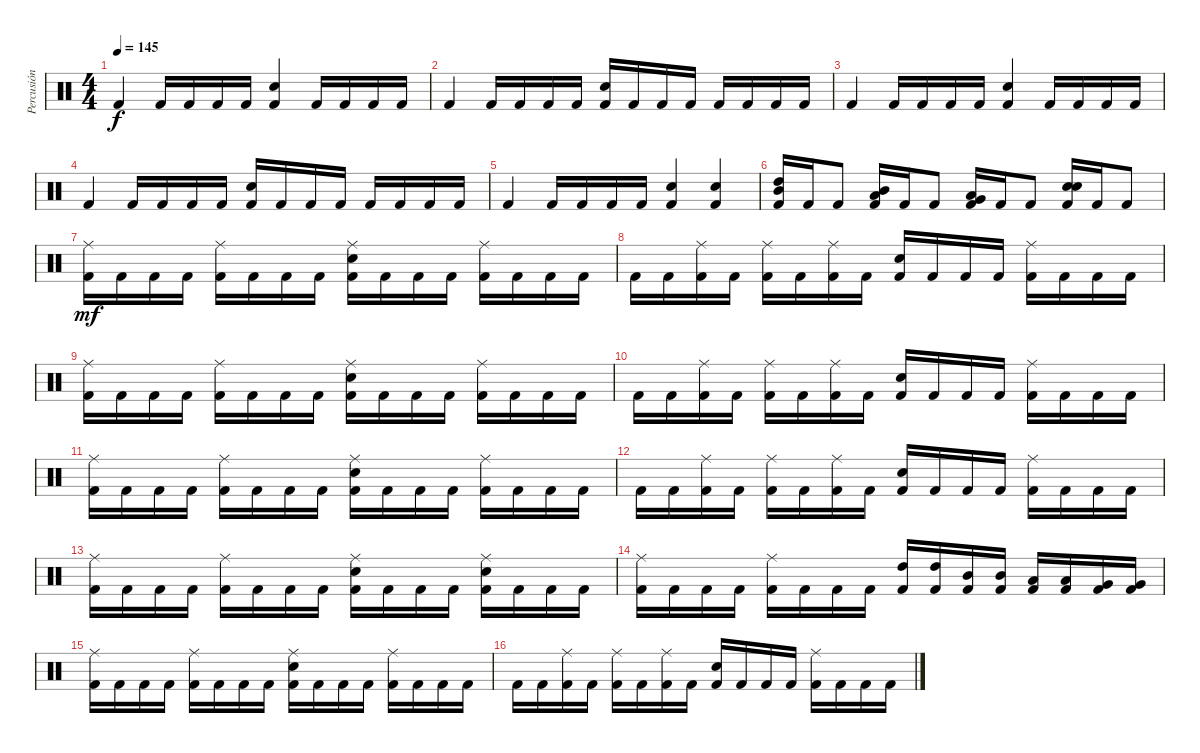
\track ("Percusión" "Percusión") {instrument percussion}
\staff {score}
\articulation defaults
\ts (4 4)
\tempo 145
\clef neutral
\ks c "Kick (hit) 2".4{dy f} "Kick (hit) 2".16 "Kick (hit) 2".16 "Kick (hit) 2".16 "Kick (hit) 2".16
("Snare (hit) 2" "Kick (hit) 2").4 "Kick (hit) 2".16 "Kick (hit) 2".16 "Kick (hit) 2".16 "Kick (hit) 2".16 |
"Kick (hit) 2".4 "Kick (hit) 2".16 "Kick (hit) 2".16 "Kick (hit) 2".16 "Kick (hit) 2".16 ("Snare (hit) 2" "Kick (hit) 2").16 "Kick (hit) 2".16 "Kick (hit) 2".16 "Kick (hit) 2".16 "Kick (hit) 2".16 "Kick (hit) 2".16 "Kick (hit) 2".16 "Kick (hit) 2".16 |
"Kick (hit) 2".4 "Kick (hit) 2".16 "Kick (hit) 2".16 "Kick (hit) 2".16 "Kick (hit) 2".16 ("Snare (hit) 2" "Kick (hit) 2").4 "Kick (hit) 2".16 "Kick (hit) 2".16 "Kick (hit) 2".16 "Kick (hit) 2".16 |
"Kick (hit) 2".4 "Kick (hit) 2".16 "Kick (hit) 2".16 "Kick (hit) 2".16 "Kick (hit) 2".16 ("Snare (hit) 2" "Kick (hit) 2").16 "Kick (hit) 2".16 "Kick (hit) 2".16 "Kick (hit) 2".16 "Kick (hit) 2".16 "Kick (hit) 2".16 "Kick (hit) 2".16 "Kick (hit) 2".16 |
"Kick (hit) 2".4 "Kick (hit) 2".16 "Kick (hit) 2".16 "Kick (hit) 2".16 "Kick (hit) 2".16 ("Snare (hit) 2" "Kick (hit) 2").4 ("Snare (hit) 2" "Kick (hit) 2").4 |
("High Tom (hit)" "Mid Tom (hit)" "Kick (hit) 2").16 "Kick (hit) 2".16 "Kick (hit) 2".8 ("Mid Tom (hit)" "Low Tom (hit)" "Kick (hit) 2").16 "Kick (hit) 2".16 "Kick (hit) 2".8 ("Low Tom (hit)" "Very Low Tom (hit)" "Kick (hit) 2").16 "Kick (hit) 2".16 "Kick (hit) 2".8 ("Snare (hit) 2" "Snare (hit) 2" "Kick (hit) 2").16 "Kick (hit) 2".16 "Kick (hit) 2".8 |
("Ride (middle)" "Kick (hit) 2").16{dy mf} "Kick (hit) 2".16 "Kick (hit) 2".16 "Kick (hit) 2".16 ("Ride (middle)" "Kick (hit) 2").16 "Kick (hit) 2".16 "Kick (hit) 2".16 "Kick (hit) 2".16 ("Ride (middle)" "Snare (hit) 2" "Kick (hit) 2").16 "Kick (hit) 2".16 "Kick (hit) 2".16 "Kick (hit) 2".16 ("Ride (middle)" "Kick (hit) 2").16 "Kick (hit) 2".16 "Kick (hit) 2".16 "Kick (hit) 2".16 |
"Kick (hit) 2".16 "Kick (hit) 2".16 ("Ride (middle)" "Kick (hit) 2").16 "Kick (hit) 2".16 ("Ride (middle)" "Kick (hit) 2").16 "Kick (hit) 2".16 ("Ride (middle)" "Kick (hit) 2").16 "Kick (hit) 2".16 ("Snare (hit) 2" "Kick (hit) 2").16 "Kick (hit) 2".16 "Kick (hit) 2".16 "Kick (hit) 2".16 ("Ride (middle)" "Kick (hit) 2").16 "Kick (hit) 2".16 "Kick (hit) 2".16 "Kick (hit) 2".16 |
("Ride (middle)" "Kick (hit) 2").16 "Kick (hit) 2".16 "Kick (hit) 2".16 "Kick (hit) 2".16 ("Ride (middle)" "Kick (hit) 2").16 "Kick (hit) 2".16 "Kick (hit) 2".16 "Kick (hit) 2".16 ("Ride (middle)" "Snare (hit) 2" "Kick (hit) 2").16 "Kick (hit) 2".16 "Kick (hit) 2".16 "Kick (hit) 2".16 ("Ride (middle)" "Kick (hit) 2").16 "Kick (hit) 2".16 "Kick (hit) 2".16 "Kick (hit) 2".16 |
"Kick (hit) 2".16 "Kick (hit) 2".16 ("Ride (middle)" "Kick (hit) 2").16 "Kick (hit) 2".16 ("Ride (middle)" "Kick (hit) 2").16 "Kick (hit) 2".16 ("Ride (middle)" "Kick (hit) 2").16 "Kick (hit) 2".16 ("Snare (hit) 2" "Kick (hit) 2").16 "Kick (hit) 2".16 "Kick (hit) 2".16 "Kick (hit) 2".16 ("Ride (middle)" "Kick (hit) 2").16 "Kick (hit) 2".16 "Kick (hit) 2".16 "Kick (hit) 2".16 |
("Ride (middle)" "Kick (hit) 2").16 "Kick (hit) 2".16 "Kick (hit) 2".16 "Kick (hit) 2".16 ("Ride (middle)" "Kick (hit) 2").16 "Kick (hit) 2".16 "Kick (hit) 2".16 "Kick (hit) 2".16 ("Ride (middle)" "Snare (hit) 2" "Kick (hit) 2").16 "Kick (hit) 2".16 "Kick (hit) 2".16 "Kick (hit) 2".16 ("Ride (middle)" "Kick (hit) 2").16 "Kick (hit) 2".16 "Kick (hit) 2".16 "Kick (hit) 2".16 |
"Kick (hit) 2".16 "Kick (hit) 2".16 ("Ride (middle)" "Kick (hit) 2").16 "Kick (hit) 2".16 ("Ride (middle)" "Kick (hit) 2").16 "Kick (hit) 2".16 ("Ride (middle)" "Kick (hit) 2").16 "Kick (hit) 2".16 ("Snare (hit) 2" "Kick (hit) 2").16 "Kick (hit) 2".16 "Kick (hit) 2".16 "Kick (hit) 2".16 ("Ride (middle)" "Kick (hit) 2").16 "Kick (hit) 2".16 "Kick (hit) 2".16 "Kick (hit) 2".16 |
("Ride (middle)" "Kick (hit) 2").16 "Kick (hit) 2".16 "Kick (hit) 2".16 "Kick (hit) 2".16 ("Ride (middle)" "Kick (hit) 2").16 "Kick (hit) 2".16 "Kick (hit) 2".16 "Kick (hit) 2".16 ("Ride (middle)" "Snare (hit) 2" "Kick (hit) 2").16 "Kick (hit) 2".16 "Kick (hit) 2".16 "Kick (hit) 2".16 ("Ride (middle)" "Snare (hit) 2" "Kick (hit) 2").16 "Kick (hit) 2".16 "Kick (hit) 2".16 "Kick (hit) 2".16 |
("Ride (middle)" "Kick (hit) 2").16 "Kick (hit) 2".16 "Kick (hit) 2".16 "Kick (hit) 2".16 ("Ride (middle)" "Kick (hit) 2").16 "Kick (hit) 2".16 "Kick (hit) 2".16 "Kick (hit) 2".16 ("High Tom (hit)" "Kick (hit) 2").16 ("High Tom (hit)" "Kick (hit) 2").16 ("Mid Tom (hit)" "Kick (hit) 2").16 ("Mid Tom (hit)" "Kick (hit) 2").16 ("Low Tom (hit)" "Kick (hit) 2").16 ("Low Tom (hit)" "Kick (hit) 2").16 ("Very Low Tom (hit)" "Kick (hit) 2").16 ("Very Low Tom (hit)" "Kick (hit) 2").16 |
("Ride (middle)" "Kick (hit) 2").16 "Kick (hit) 2".16 "Kick (hit) 2".16 "Kick (hit) 2".16 ("Ride (middle)" "Kick (hit) 2").16 "Kick (hit) 2".16 "Kick (hit) 2".16 "Kick (hit) 2".16 ("Ride (middle)" "Snare (hit) 2" "Kick (hit) 2").16 "Kick (hit) 2".16 "Kick (hit) 2".16 "Kick (hit) 2".16 ("Ride (middle)" "Kick (hit) 2").16 "Kick (hit) 2".16 "Kick (hit) 2".16 "Kick (hit) 2".16 |
"Kick (hit) 2".16 "Kick (hit) 2".16 ("Ride (middle)" "Kick (hit) 2").16 "Kick (hit) 2".16 ("Ride (middle)" "Kick (hit) 2").16 "Kick (hit) 2".16 ("Ride (middle)" "Kick (hit) 2").16 "Kick (hit) 2".16 ("Snare (hit) 2" "Kick (hit) 2").16 "Kick (hit) 2".16 "Kick (hit) 2".16 "Kick (hit) 2".16 ("Ride (middle)" "Kick (hit) 2").16 "Kick (hit) 2".16 "Kick (hit) 2".16 "Kick (hit) 2".16
